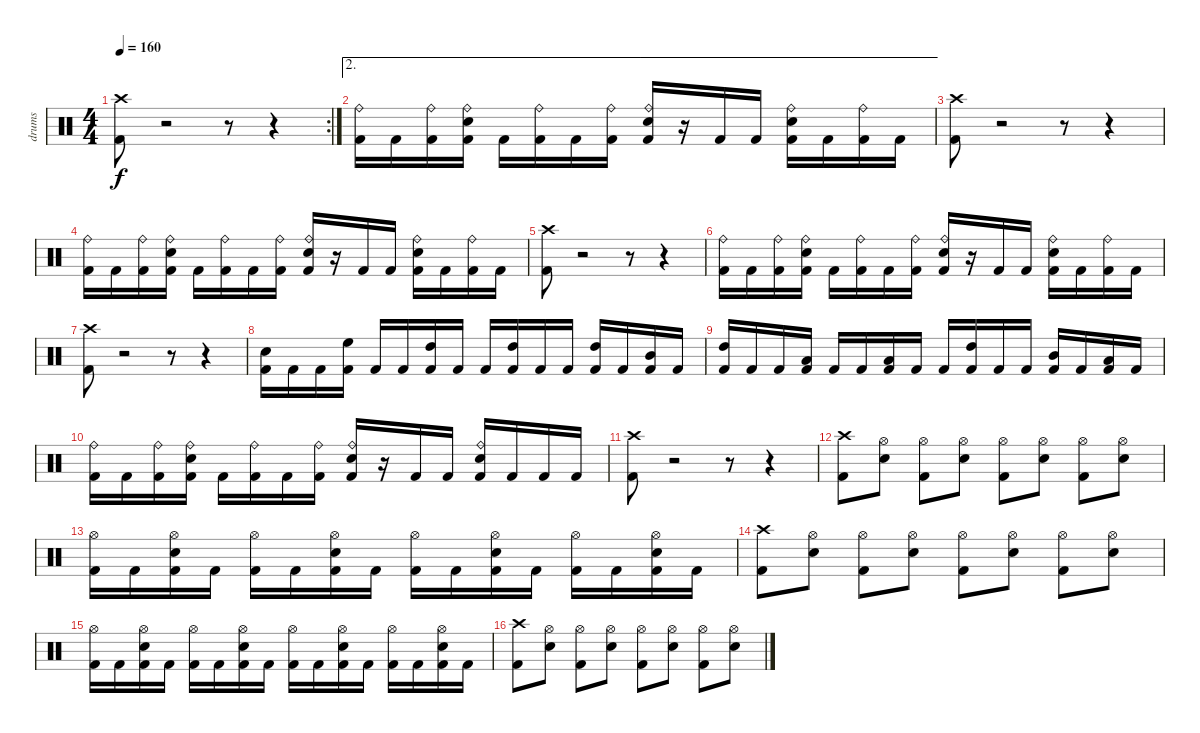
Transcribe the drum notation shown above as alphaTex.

\track ("drums" "drums") {instrument percussion}
\staff {score}
\articulation defaults
\rc 2
\ts (4 4)
\tempo 160
\clef neutral
\ks c
("Crash high (hit)" "Kick (hit) 2").8{dy f} r.2 r.8 r.4 |
\ae 2
("Ride (bell)" "Kick (hit) 2").16 "Kick (hit) 2".16 ("Ride (bell)" "Kick (hit) 2").16 ("Ride (bell)" "Snare (hit) 2" "Kick (hit) 2").16 "Kick (hit) 2".16 ("Ride (bell)" "Kick (hit) 2").16 "Kick (hit) 2".16 ("Ride (bell)" "Kick (hit) 2").16 ("Ride (bell)" "Snare (hit) 2" "Kick (hit) 2").16 r.16 "Kick (hit) 2".16 "Kick (hit) 2".16 ("Ride (bell)" "Snare (hit) 2" "Kick (hit) 2").16 "Kick (hit) 2".16 ("Ride (bell)" "Kick (hit) 2").16 "Kick (hit) 2".16 |
("Crash high (hit)" "Kick (hit) 2").8 r.2 r.8 r.4 |
("Ride (bell)" "Kick (hit) 2").16 "Kick (hit) 2".16 ("Ride (bell)" "Kick (hit) 2").16 ("Ride (bell)" "Snare (hit) 2" "Kick (hit) 2").16 "Kick (hit) 2".16 ("Ride (bell)" "Kick (hit) 2").16 "Kick (hit) 2".16 ("Ride (bell)" "Kick (hit) 2").16 ("Ride (bell)" "Snare (hit) 2" "Kick (hit) 2").16 r.16 "Kick (hit) 2".16 "Kick (hit) 2".16 ("Ride (bell)" "Snare (hit) 2" "Kick (hit) 2").16 "Kick (hit) 2".16 ("Ride (bell)" "Kick (hit) 2").16 "Kick (hit) 2".16 |
("Crash high (hit)" "Kick (hit) 2").8 r.2 r.8 r.4 |
("Ride (bell)" "Kick (hit) 2").16 "Kick (hit) 2".16 ("Ride (bell)" "Kick (hit) 2").16 ("Ride (bell)" "Snare (hit) 2" "Kick (hit) 2").16 "Kick (hit) 2".16 ("Ride (bell)" "Kick (hit) 2").16 "Kick (hit) 2".16 ("Ride (bell)" "Kick (hit) 2").16 ("Ride (bell)" "Snare (hit) 2" "Kick (hit) 2").16 r.16 "Kick (hit) 2".16 "Kick (hit) 2".16 ("Ride (bell)" "Snare (hit) 2" "Kick (hit) 2").16 "Kick (hit) 2".16 ("Ride (bell)" "Kick (hit) 2").16 "Kick (hit) 2".16 |
("Crash high (hit)" "Kick (hit) 2").8 r.2 r.8 r.4 |
("Snare (hit) 2" "Kick (hit) 2").16 "Kick (hit) 2".16 "Kick (hit) 2".16 ("High Floor Tom (hit)" "Kick (hit) 2").16 "Kick (hit) 2".16 "Kick (hit) 2".16 ("High Tom (hit)" "Kick (hit) 2").16 "Kick (hit) 2".16 "Kick (hit) 2".16 ("High Tom (hit)" "Kick (hit) 2").16 "Kick (hit) 2".16 "Kick (hit) 2".16 ("High Tom (hit)" "Kick (hit) 2").16 "Kick (hit) 2".16 ("Mid Tom (hit)" "Kick (hit) 2").16 "Kick (hit) 2".16 |
("High Tom (hit)" "Kick (hit) 2").16 "Kick (hit) 2".16 "Kick (hit) 2".16 ("Low Tom (hit)" "Kick (hit) 2").16 "Kick (hit) 2".16 "Kick (hit) 2".16 ("Low Tom (hit)" "Kick (hit) 2").16 "Kick (hit) 2".16 "Kick (hit) 2".16 ("High Tom (hit)" "Kick (hit) 2").16 "Kick (hit) 2".16 "Kick (hit) 2".16 ("Mid Tom (hit)" "Kick (hit) 2").16 "Kick (hit) 2".16 ("Low Tom (hit)" "Kick (hit) 2").16 "Kick (hit) 2".16 |
("Ride (bell)" "Kick (hit) 2").16 "Kick (hit) 2".16 ("Ride (bell)" "Kick (hit) 2").16 ("Ride (bell)" "Snare (hit) 2" "Kick (hit) 2").16 "Kick (hit) 2".16 ("Ride (bell)" "Kick (hit) 2").16 "Kick (hit) 2".16 ("Ride (bell)" "Kick (hit) 2").16 ("Ride (bell)" "Snare (hit) 2" "Kick (hit) 2").16 r.16 "Kick (hit) 2".16 "Kick (hit) 2".16 ("Ride (bell)" "Snare (hit) 2" "Kick (hit) 2").16 "Kick (hit) 2".16 "Kick (hit) 2".16 "Kick (hit) 2".16 |
("Crash high (hit)" "Kick (hit) 2").8 r.2 r.8 r.4 |
("Crash high (hit)" "Kick (hit) 2").8 ("Hi-Hat (open)" "Snare (hit) 2").8 ("Hi-Hat (open)" "Kick (hit) 2").8 ("Hi-Hat (open)" "Snare (hit) 2").8 ("Hi-Hat (open)" "Kick (hit) 2").8 ("Hi-Hat (open)" "Snare (hit) 2").8 ("Hi-Hat (open)" "Kick (hit) 2").8 ("Hi-Hat (open)" "Snare (hit) 2").8 |
("Hi-Hat (open)" "Kick (hit) 2").16 "Kick (hit) 2".16 ("Hi-Hat (open)" "Snare (hit) 2" "Kick (hit) 2").16 "Kick (hit) 2".16 ("Hi-Hat (open)" "Kick (hit) 2").16 "Kick (hit) 2".16 ("Hi-Hat (open)" "Snare (hit) 2" "Kick (hit) 2").16 "Kick (hit) 2".16 ("Hi-Hat (open)" "Kick (hit) 2").16 "Kick (hit) 2".16 ("Hi-Hat (open)" "Snare (hit) 2" "Kick (hit) 2").16 "Kick (hit) 2".16 ("Hi-Hat (open)" "Kick (hit) 2").16 "Kick (hit) 2".16 ("Hi-Hat (open)" "Snare (hit) 2" "Kick (hit) 2").16 "Kick (hit) 2".16 |
("Crash high (hit)" "Kick (hit) 2").8 ("Hi-Hat (open)" "Snare (hit) 2").8 ("Hi-Hat (open)" "Kick (hit) 2").8 ("Hi-Hat (open)" "Snare (hit) 2").8 ("Hi-Hat (open)" "Kick (hit) 2").8 ("Hi-Hat (open)" "Snare (hit) 2").8 ("Hi-Hat (open)" "Kick (hit) 2").8 ("Hi-Hat (open)" "Snare (hit) 2").8 |
("Hi-Hat (open)" "Kick (hit) 2").16 "Kick (hit) 2".16 ("Hi-Hat (open)" "Snare (hit) 2" "Kick (hit) 2").16 "Kick (hit) 2".16 ("Hi-Hat (open)" "Kick (hit) 2").16 "Kick (hit) 2".16 ("Hi-Hat (open)" "Snare (hit) 2" "Kick (hit) 2").16 "Kick (hit) 2".16 ("Hi-Hat (open)" "Kick (hit) 2").16 "Kick (hit) 2".16 ("Hi-Hat (open)" "Snare (hit) 2" "Kick (hit) 2").16 "Kick (hit) 2".16 ("Hi-Hat (open)" "Kick (hit) 2").16 "Kick (hit) 2".16 ("Hi-Hat (open)" "Snare (hit) 2" "Kick (hit) 2").16 "Kick (hit) 2".16 |
("Crash high (hit)" "Kick (hit) 2").8 ("Hi-Hat (open)" "Snare (hit) 2").8 ("Hi-Hat (open)" "Kick (hit) 2").8 ("Hi-Hat (open)" "Snare (hit) 2").8 ("Hi-Hat (open)" "Kick (hit) 2").8 ("Hi-Hat (open)" "Snare (hit) 2").8 ("Hi-Hat (open)" "Kick (hit) 2").8 ("Hi-Hat (open)" "Snare (hit) 2").8
